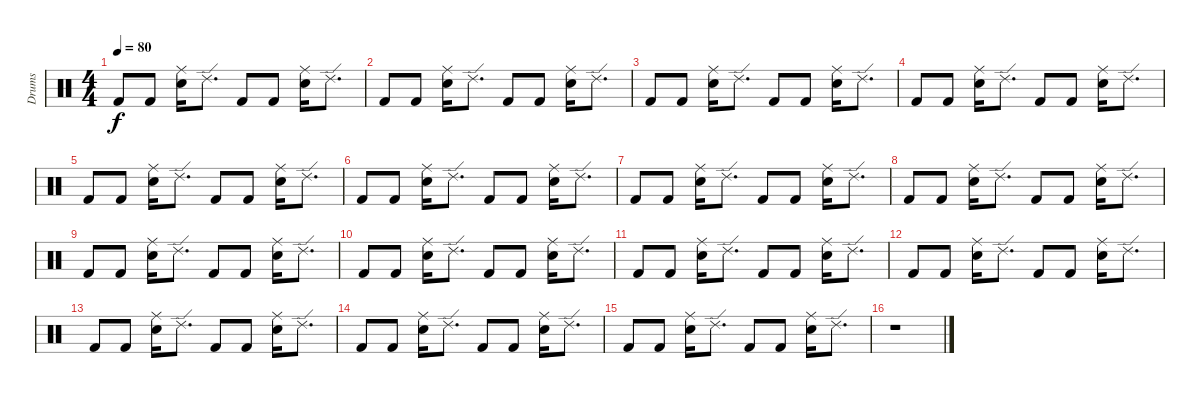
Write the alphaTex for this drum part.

\track ("Drums" "Drums") {instrument percussion}
\staff {score}
\articulation defaults
\ts (4 4)
\tempo 80
\clef neutral
\ks c "Kick (hit) 2".8{dy f} "Kick (hit) 2".8
("Ride (middle)" "Snare (hit) 2").16 "Ride (edge) 2".8{d} "Kick (hit) 2".8 "Kick (hit) 2".8 ("Ride (middle)" "Snare (hit) 2").16 "Ride (edge) 2".8{d} |
"Kick (hit) 2".8 "Kick (hit) 2".8 ("Ride (middle)" "Snare (hit) 2").16 "Ride (edge) 2".8{d} "Kick (hit) 2".8 "Kick (hit) 2".8 ("Ride (middle)" "Snare (hit) 2").16 "Ride (edge) 2".8{d} |
"Kick (hit) 2".8 "Kick (hit) 2".8 ("Ride (middle)" "Snare (hit) 2").16 "Ride (edge) 2".8{d} "Kick (hit) 2".8 "Kick (hit) 2".8 ("Ride (middle)" "Snare (hit) 2").16 "Ride (edge) 2".8{d} |
"Kick (hit) 2".8 "Kick (hit) 2".8 ("Ride (middle)" "Snare (hit) 2").16 "Ride (edge) 2".8{d} "Kick (hit) 2".8 "Kick (hit) 2".8 ("Ride (middle)" "Snare (hit) 2").16 "Ride (edge) 2".8{d} |
"Kick (hit) 2".8 "Kick (hit) 2".8 ("Ride (middle)" "Snare (hit) 2").16 "Ride (edge) 2".8{d} "Kick (hit) 2".8 "Kick (hit) 2".8 ("Ride (middle)" "Snare (hit) 2").16 "Ride (edge) 2".8{d} |
"Kick (hit) 2".8 "Kick (hit) 2".8 ("Ride (middle)" "Snare (hit) 2").16 "Ride (edge) 2".8{d} "Kick (hit) 2".8 "Kick (hit) 2".8 ("Ride (middle)" "Snare (hit) 2").16 "Ride (edge) 2".8{d} |
"Kick (hit) 2".8 "Kick (hit) 2".8 ("Ride (middle)" "Snare (hit) 2").16 "Ride (edge) 2".8{d} "Kick (hit) 2".8 "Kick (hit) 2".8 ("Ride (middle)" "Snare (hit) 2").16 "Ride (edge) 2".8{d} |
"Kick (hit) 2".8 "Kick (hit) 2".8 ("Ride (middle)" "Snare (hit) 2").16 "Ride (edge) 2".8{d} "Kick (hit) 2".8 "Kick (hit) 2".8 ("Ride (middle)" "Snare (hit) 2").16 "Ride (edge) 2".8{d} |
"Kick (hit) 2".8 "Kick (hit) 2".8 ("Ride (middle)" "Snare (hit) 2").16 "Ride (edge) 2".8{d} "Kick (hit) 2".8 "Kick (hit) 2".8 ("Ride (middle)" "Snare (hit) 2").16 "Ride (edge) 2".8{d} |
"Kick (hit) 2".8 "Kick (hit) 2".8 ("Ride (middle)" "Snare (hit) 2").16 "Ride (edge) 2".8{d} "Kick (hit) 2".8 "Kick (hit) 2".8 ("Ride (middle)" "Snare (hit) 2").16 "Ride (edge) 2".8{d} |
"Kick (hit) 2".8 "Kick (hit) 2".8 ("Ride (middle)" "Snare (hit) 2").16 "Ride (edge) 2".8{d} "Kick (hit) 2".8 "Kick (hit) 2".8 ("Ride (middle)" "Snare (hit) 2").16 "Ride (edge) 2".8{d} |
"Kick (hit) 2".8 "Kick (hit) 2".8 ("Ride (middle)" "Snare (hit) 2").16 "Ride (edge) 2".8{d} "Kick (hit) 2".8 "Kick (hit) 2".8 ("Ride (middle)" "Snare (hit) 2").16 "Ride (edge) 2".8{d} |
"Kick (hit) 2".8 "Kick (hit) 2".8 ("Ride (middle)" "Snare (hit) 2").16 "Ride (edge) 2".8{d} "Kick (hit) 2".8 "Kick (hit) 2".8 ("Ride (middle)" "Snare (hit) 2").16 "Ride (edge) 2".8{d} |
"Kick (hit) 2".8 "Kick (hit) 2".8 ("Ride (middle)" "Snare (hit) 2").16 "Ride (edge) 2".8{d} "Kick (hit) 2".8 "Kick (hit) 2".8 ("Ride (middle)" "Snare (hit) 2").16 "Ride (edge) 2".8{d} |
"Kick (hit) 2".8 "Kick (hit) 2".8 ("Ride (middle)" "Snare (hit) 2").16 "Ride (edge) 2".8{d} "Kick (hit) 2".8 "Kick (hit) 2".8 ("Ride (middle)" "Snare (hit) 2").16 "Ride (edge) 2".8{d} |
r.1
